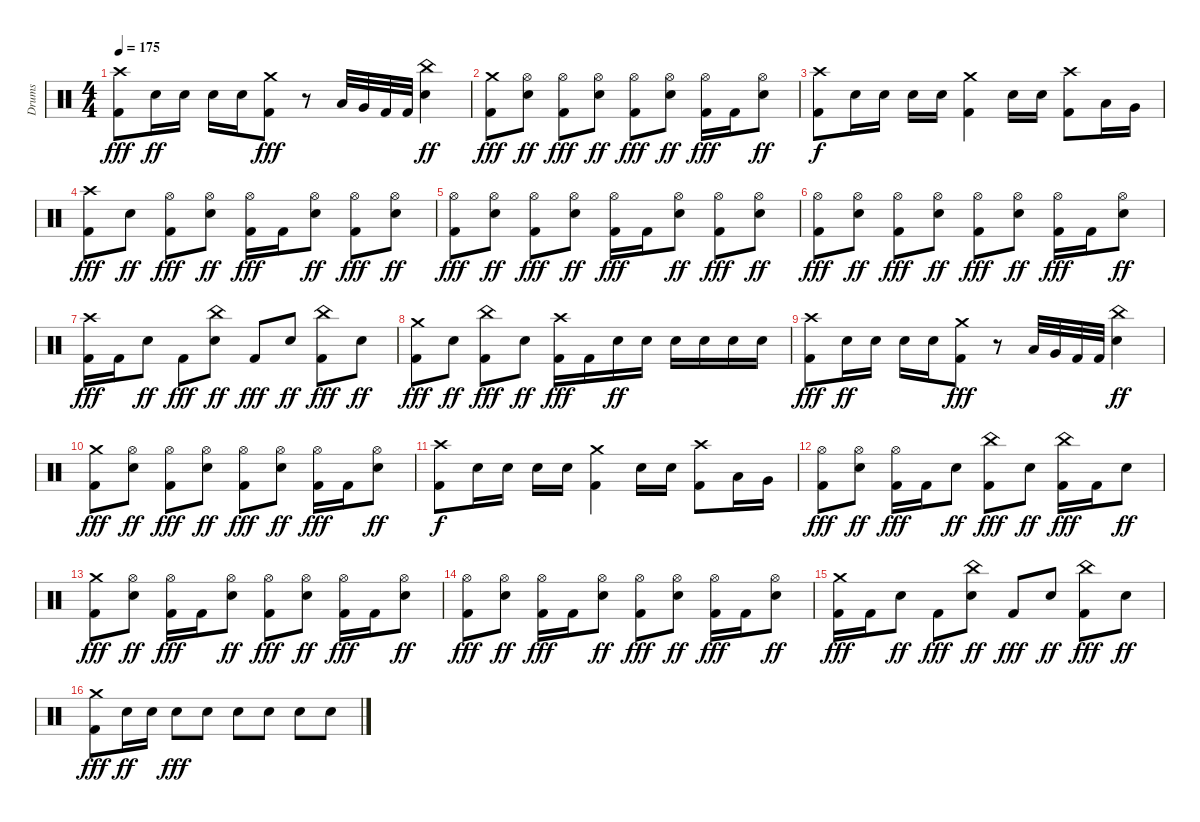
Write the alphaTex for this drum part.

\track ("Drums" "Drums") {instrument percussion}
\staff {score}
\articulation defaults
\ts (4 4)
\tempo 175
\clef neutral
\ks c
("Crash high (hit)" "Kick (hit) 2").8{dy fff} "Snare (hit) 2".16{dy ff} "Snare (hit) 2".16 "Snare (hit) 2".16 "Snare (hit) 2".16 ("Crash medium (hit)" "Kick (hit) 2").8{dy fff} r.8 "Low Floor Tom (hit)".32 "Very Low Tom (hit)".32 "Kick (hit) 2".32 "Kick (hit) 2".32 ("China (hit)" "Snare (hit) 2").4{dy ff} |
("Crash medium (hit)" "Kick (hit) 2").8{dy fff} ("Hi-Hat (open)" "Snare (hit) 2").8{dy ff} ("Hi-Hat (open)" "Kick (hit) 2").8{dy fff} ("Hi-Hat (open)" "Snare (hit) 2").8{dy ff} ("Hi-Hat (open)" "Kick (hit) 2").8{dy fff} ("Hi-Hat (open)" "Snare (hit) 2").8{dy ff} ("Hi-Hat (open)" "Kick (hit) 2").16{dy fff} "Kick (hit) 2".16 ("Hi-Hat (open)" "Snare (hit) 2").8{dy ff} |
("Crash high (hit)" "Kick (hit) 2").8{dy f} "Electric Snare (hit)".16 "Electric Snare (hit)".16 "Electric Snare (hit)".16 "Electric Snare (hit)".16 ("Crash medium (hit)" "Kick (hit) 2").4 "Electric Snare (hit)".16 "Electric Snare (hit)".16 ("Crash high (hit)" "Kick (hit) 2").8 "Low Tom (hit)".16 "Very Low Tom (hit)".16 |
("Crash high (hit)" "Kick (hit) 2").8{dy fff} "Snare (hit) 2".8{dy ff} ("Hi-Hat (open)" "Kick (hit) 2").8{dy fff} ("Hi-Hat (open)" "Snare (hit) 2").8{dy ff} ("Hi-Hat (open)" "Kick (hit) 2").16{dy fff} "Kick (hit) 2".16 ("Hi-Hat (open)" "Snare (hit) 2").8{dy ff} ("Hi-Hat (open)" "Kick (hit) 2").8{dy fff} ("Hi-Hat (open)" "Snare (hit) 2").8{dy ff} |
("Hi-Hat (open)" "Kick (hit) 2").8{dy fff} ("Hi-Hat (open)" "Snare (hit) 2").8{dy ff} ("Hi-Hat (open)" "Kick (hit) 2").8{dy fff} ("Hi-Hat (open)" "Snare (hit) 2").8{dy ff} ("Hi-Hat (open)" "Kick (hit) 2").16{dy fff} "Kick (hit) 2".16 ("Hi-Hat (open)" "Snare (hit) 2").8{dy ff} ("Hi-Hat (open)" "Kick (hit) 2").8{dy fff} ("Hi-Hat (open)" "Snare (hit) 2").8{dy ff} |
("Hi-Hat (open)" "Kick (hit) 2").8{dy fff} ("Hi-Hat (open)" "Snare (hit) 2").8{dy ff} ("Hi-Hat (open)" "Kick (hit) 2").8{dy fff} ("Hi-Hat (open)" "Snare (hit) 2").8{dy ff} ("Hi-Hat (open)" "Kick (hit) 2").8{dy fff} ("Hi-Hat (open)" "Snare (hit) 2").8{dy ff} ("Hi-Hat (open)" "Kick (hit) 2").16{dy fff} "Kick (hit) 2".16 ("Hi-Hat (open)" "Snare (hit) 2").8{dy ff} |
("Crash high (hit)" "Kick (hit) 2").16{dy fff} "Kick (hit) 2".16 "Snare (hit) 2".8{dy ff} "Kick (hit) 2".8{dy fff} ("China (hit)" "Snare (hit) 2").8{dy ff} "Kick (hit) 2".8{dy fff} "Snare (hit) 2".8{dy ff} ("China (hit)" "Kick (hit) 2").8{dy fff} "Snare (hit) 2".8{dy ff} |
("Crash medium (hit)" "Kick (hit) 2").8{dy fff} "Snare (hit) 2".8{dy ff} ("China (hit)" "Kick (hit) 2").8{dy fff} "Snare (hit) 2".8{dy ff} ("Crash high (hit)" "Kick (hit) 2").16{dy fff} "Kick (hit) 2".16 "Snare (hit) 2".16{dy ff} "Snare (hit) 2".16 "Snare (hit) 2".16 "Snare (hit) 2".16 "Snare (hit) 2".16 "Snare (hit) 2".16 |
("Crash high (hit)" "Kick (hit) 2").8{dy fff} "Snare (hit) 2".16{dy ff} "Snare (hit) 2".16 "Snare (hit) 2".16 "Snare (hit) 2".16 ("Crash medium (hit)" "Kick (hit) 2").8{dy fff} r.8 "Low Floor Tom (hit)".32 "Very Low Tom (hit)".32 "Kick (hit) 2".32 "Kick (hit) 2".32 ("China (hit)" "Snare (hit) 2").4{dy ff} |
("Crash medium (hit)" "Kick (hit) 2").8{dy fff} ("Hi-Hat (open)" "Snare (hit) 2").8{dy ff} ("Hi-Hat (open)" "Kick (hit) 2").8{dy fff} ("Hi-Hat (open)" "Snare (hit) 2").8{dy ff} ("Hi-Hat (open)" "Kick (hit) 2").8{dy fff} ("Hi-Hat (open)" "Snare (hit) 2").8{dy ff} ("Hi-Hat (open)" "Kick (hit) 2").16{dy fff} "Kick (hit) 2".16 ("Hi-Hat (open)" "Snare (hit) 2").8{dy ff} |
("Crash high (hit)" "Kick (hit) 2").8{dy f} "Electric Snare (hit)".16 "Electric Snare (hit)".16 "Electric Snare (hit)".16 "Electric Snare (hit)".16 ("Crash medium (hit)" "Kick (hit) 2").4 "Electric Snare (hit)".16 "Electric Snare (hit)".16 ("Crash high (hit)" "Kick (hit) 2").8 "Low Tom (hit)".16 "Very Low Tom (hit)".16 |
("Hi-Hat (open)" "Kick (hit) 2").8{dy fff} ("Hi-Hat (open)" "Snare (hit) 2").8{dy ff} ("Hi-Hat (open)" "Kick (hit) 2").16{dy fff} "Kick (hit) 2".16 "Snare (hit) 2".8{dy ff} ("China (hit)" "Kick (hit) 2").8{dy fff} "Snare (hit) 2".8{dy ff} ("China (hit)" "Kick (hit) 2").16{dy fff} "Kick (hit) 2".16 "Snare (hit) 2".8{dy ff} |
("Crash medium (hit)" "Kick (hit) 2").8{dy fff} ("Hi-Hat (open)" "Snare (hit) 2").8{dy ff} ("Hi-Hat (open)" "Kick (hit) 2").16{dy fff} "Kick (hit) 2".16 ("Hi-Hat (open)" "Snare (hit) 2").8{dy ff} ("Hi-Hat (open)" "Kick (hit) 2").8{dy fff} ("Hi-Hat (open)" "Snare (hit) 2").8{dy ff} ("Hi-Hat (open)" "Kick (hit) 2").16{dy fff} "Kick (hit) 2".16 ("Hi-Hat (open)" "Snare (hit) 2").8{dy ff} |
("Hi-Hat (open)" "Kick (hit) 2").8{dy fff} ("Hi-Hat (open)" "Snare (hit) 2").8{dy ff} ("Hi-Hat (open)" "Kick (hit) 2").16{dy fff} "Kick (hit) 2".16 ("Hi-Hat (open)" "Snare (hit) 2").8{dy ff} ("Hi-Hat (open)" "Kick (hit) 2").8{dy fff} ("Hi-Hat (open)" "Snare (hit) 2").8{dy ff} ("Hi-Hat (open)" "Kick (hit) 2").16{dy fff} "Kick (hit) 2".16 ("Hi-Hat (open)" "Snare (hit) 2").8{dy ff} |
("Crash medium (hit)" "Kick (hit) 2").16{dy fff} "Kick (hit) 2".16 "Snare (hit) 2".8{dy ff} "Kick (hit) 2".8{dy fff} ("China (hit)" "Snare (hit) 2").8{dy ff} "Kick (hit) 2".8{dy fff} "Snare (hit) 2".8{dy ff} ("China (hit)" "Kick (hit) 2").8{dy fff} "Snare (hit) 2".8{dy ff} |
("Crash medium (hit)" "Kick (hit) 2").8{dy fff} "Snare (hit) 2".16{dy ff} "Snare (hit) 2".16 "Snare (hit) 2".8{dy fff} "Snare (hit) 2".8 "Snare (hit) 2".8 "Snare (hit) 2".8 "Snare (hit) 2".8 "Snare (hit) 2".8
